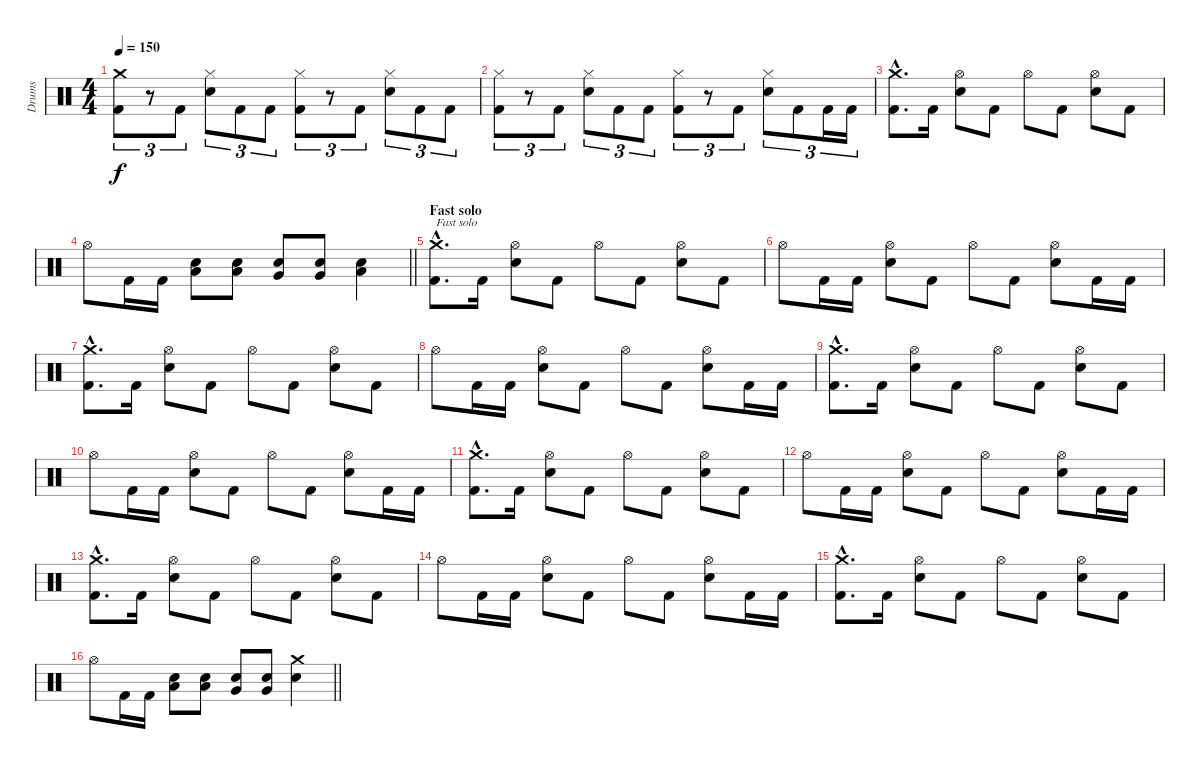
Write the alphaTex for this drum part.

\track ("Drums" "Drums") {instrument percussion}
\staff {score}
\articulation defaults
\ts (4 4)
\tempo 150
\clef neutral
\ks c
("Kick (hit) 2" "Crash medium (hit)").8{tu (3 2) dy f} r.8{tu (3 2)} "Kick (hit) 2".8{tu (3 2)} ("Snare (hit) 2" "Hi-Hat (closed)").8{tu (3 2)} "Kick (hit) 2".8{tu (3 2)} "Kick (hit) 2".8{tu (3 2)} ("Kick (hit) 2" "Hi-Hat (closed)").8{tu (3 2)} r.8{tu (3 2)} "Kick (hit) 2".8{tu (3 2)} ("Snare (hit) 2" "Hi-Hat (closed)").8{tu (3 2)} "Kick (hit) 2".8{tu (3 2)} "Kick (hit) 2".8{tu (3 2)} |
("Kick (hit) 2" "Hi-Hat (closed)").8{tu (3 2)} r.8{tu (3 2)} "Kick (hit) 2".8{tu (3 2)} ("Snare (hit) 2" "Hi-Hat (closed)").8{tu (3 2)} "Kick (hit) 2".8{tu (3 2)} "Kick (hit) 2".8{tu (3 2)} ("Kick (hit) 2" "Hi-Hat (closed)").8{tu (3 2)} r.8{tu (3 2)} "Kick (hit) 2".8{tu (3 2)} ("Snare (hit) 2" "Hi-Hat (closed)").8{tu (3 2)} "Kick (hit) 2".8{tu (3 2)} "Kick (hit) 2".16{tu (3 2)} "Kick (hit) 2".16{tu (3 2)} |
("Kick (hit) 2"{hac} "Crash medium (hit)"{hac}).8{d} "Kick (hit) 2".16 ("Snare (hit) 2" "Hi-Hat (open)").8 "Kick (hit) 2".8 "Hi-Hat (open)".8 "Kick (hit) 2".8 ("Snare (hit) 2" "Hi-Hat (open)").8 "Kick (hit) 2".8 |
\barLineRight lightlight "Hi-Hat (open)".8 "Kick (hit) 2".16 "Kick (hit) 2".16
("Snare (hit) 2" "Low Tom (hit)").8 ("Snare (hit) 2" "Low Tom (hit)").8 ("Snare (hit) 2" "Very Low Tom (hit)").8 ("Snare (hit) 2" "Very Low Tom (hit)").8 ("Snare (hit) 2" "Low Floor Tom (hit)").4 |
\section ("" "Fast solo")
("Kick (hit) 2"{hac} "Crash medium (hit)"{hac}).8{d txt "Fast solo"} "Kick (hit) 2".16 ("Snare (hit) 2" "Hi-Hat (open)").8 "Kick (hit) 2".8 "Hi-Hat (open)".8 "Kick (hit) 2".8 ("Snare (hit) 2" "Hi-Hat (open)").8 "Kick (hit) 2".8 |
"Hi-Hat (open)".8 "Kick (hit) 2".16 "Kick (hit) 2".16 ("Snare (hit) 2" "Hi-Hat (open)").8 "Kick (hit) 2".8 "Hi-Hat (open)".8 "Kick (hit) 2".8 ("Snare (hit) 2" "Hi-Hat (open)").8 "Kick (hit) 2".16 "Kick (hit) 2".16 |
("Kick (hit) 2"{hac} "Crash medium (hit)"{hac}).8{d} "Kick (hit) 2".16 ("Snare (hit) 2" "Hi-Hat (open)").8 "Kick (hit) 2".8 "Hi-Hat (open)".8 "Kick (hit) 2".8 ("Snare (hit) 2" "Hi-Hat (open)").8 "Kick (hit) 2".8 |
"Hi-Hat (open)".8 "Kick (hit) 2".16 "Kick (hit) 2".16 ("Snare (hit) 2" "Hi-Hat (open)").8 "Kick (hit) 2".8 "Hi-Hat (open)".8 "Kick (hit) 2".8 ("Snare (hit) 2" "Hi-Hat (open)").8 "Kick (hit) 2".16 "Kick (hit) 2".16 |
("Kick (hit) 2"{hac} "Crash medium (hit)"{hac}).8{d} "Kick (hit) 2".16 ("Snare (hit) 2" "Hi-Hat (open)").8 "Kick (hit) 2".8 "Hi-Hat (open)".8 "Kick (hit) 2".8 ("Snare (hit) 2" "Hi-Hat (open)").8 "Kick (hit) 2".8 |
"Hi-Hat (open)".8 "Kick (hit) 2".16 "Kick (hit) 2".16 ("Snare (hit) 2" "Hi-Hat (open)").8 "Kick (hit) 2".8 "Hi-Hat (open)".8 "Kick (hit) 2".8 ("Snare (hit) 2" "Hi-Hat (open)").8 "Kick (hit) 2".16 "Kick (hit) 2".16 |
("Kick (hit) 2"{hac} "Crash medium (hit)"{hac}).8{d} "Kick (hit) 2".16 ("Snare (hit) 2" "Hi-Hat (open)").8 "Kick (hit) 2".8 "Hi-Hat (open)".8 "Kick (hit) 2".8 ("Snare (hit) 2" "Hi-Hat (open)").8 "Kick (hit) 2".8 |
"Hi-Hat (open)".8 "Kick (hit) 2".16 "Kick (hit) 2".16 ("Snare (hit) 2" "Hi-Hat (open)").8 "Kick (hit) 2".8 "Hi-Hat (open)".8 "Kick (hit) 2".8 ("Snare (hit) 2" "Hi-Hat (open)").8 "Kick (hit) 2".16 "Kick (hit) 2".16 |
("Kick (hit) 2"{hac} "Crash medium (hit)"{hac}).8{d} "Kick (hit) 2".16 ("Snare (hit) 2" "Hi-Hat (open)").8 "Kick (hit) 2".8 "Hi-Hat (open)".8 "Kick (hit) 2".8 ("Snare (hit) 2" "Hi-Hat (open)").8 "Kick (hit) 2".8 |
"Hi-Hat (open)".8 "Kick (hit) 2".16 "Kick (hit) 2".16 ("Snare (hit) 2" "Hi-Hat (open)").8 "Kick (hit) 2".8 "Hi-Hat (open)".8 "Kick (hit) 2".8 ("Snare (hit) 2" "Hi-Hat (open)").8 "Kick (hit) 2".16 "Kick (hit) 2".16 |
("Kick (hit) 2"{hac} "Crash medium (hit)"{hac}).8{d} "Kick (hit) 2".16 ("Snare (hit) 2" "Hi-Hat (open)").8 "Kick (hit) 2".8 "Hi-Hat (open)".8 "Kick (hit) 2".8 ("Snare (hit) 2" "Hi-Hat (open)").8 "Kick (hit) 2".8 |
\barLineRight lightlight "Hi-Hat (open)".8 "Kick (hit) 2".16 "Kick (hit) 2".16
("Snare (hit) 2" "Low Tom (hit)").8 ("Snare (hit) 2" "Low Tom (hit)").8 ("Snare (hit) 2" "Very Low Tom (hit)").8 ("Snare (hit) 2" "Very Low Tom (hit)").8 ("Snare (hit) 2" "Crash medium (hit)").4
